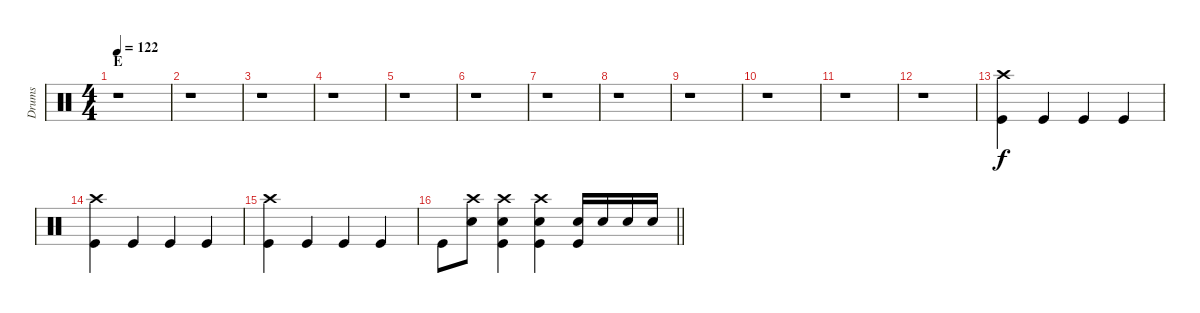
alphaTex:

\track ("Drums" "Drums") {instrument percussion}
\staff {score}
\articulation defaults
\ts (4 4)
\section ("" "E")
\tempo 122
\clef neutral
\ks c
r.1{dy f} |
r.1 |
r.1 |
r.1 |
r.1 |
r.1 |
r.1 |
r.1 |
r.1 |
r.1 |
r.1 |
r.1 |
("Crash high (hit)" "Kick (hit)").4 "Kick (hit)".4 "Kick (hit)".4 "Kick (hit)".4 |
("Crash high (hit)" "Kick (hit)").4 "Kick (hit)".4 "Kick (hit)".4 "Kick (hit)".4 |
("Crash high (hit)" "Kick (hit)").4 "Kick (hit)".4 "Kick (hit)".4 "Kick (hit)".4 |
\barLineRight lightlight "Kick (hit)".8
("Crash high (hit)" "Electric Snare (hit)").8 ("Crash high (hit)" "Electric Snare (hit)" "Kick (hit)").4 ("Crash high (hit)" "Electric Snare (hit)" "Kick (hit)").4 ("Electric Snare (hit)" "Kick (hit)").16 "Electric Snare (hit)".16 "Electric Snare (hit)".16 "Electric Snare (hit)".16
